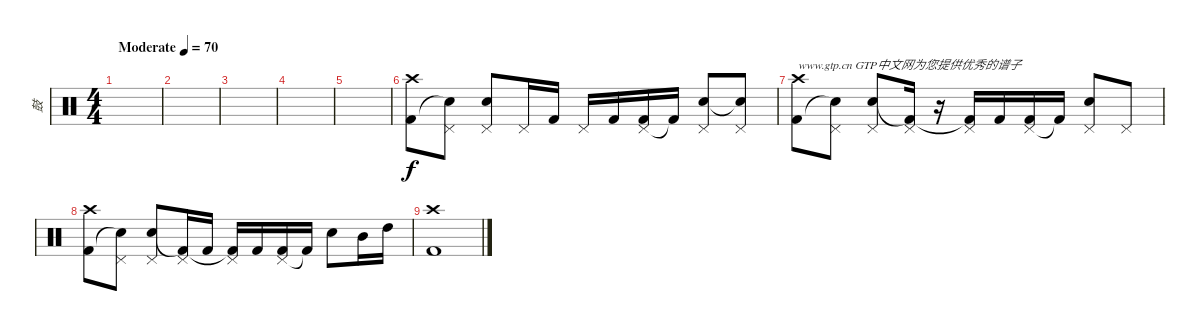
\track ("鼓" "鼓") {instrument percussion}
\staff {score}
\articulation defaults
\ts (4 4)
\tempo (70 "Moderate")
\clef neutral
\ks c
|
|
|
|
|
("Crash high (hit)" "Kick (hit) 2").8 ("Pedal Hi-Hat (hit)" "Snare (hit)"{t}).8 ("Pedal Hi-Hat (hit)" "Electric Snare (hit)").8 "Pedal Hi-Hat (hit)".16 "Kick (hit) 2".16 "Pedal Hi-Hat (hit)".16 "Kick (hit) 2".16 ("Pedal Hi-Hat (hit)" "Kick (hit) 2").16 "Kick (hit) 2"{t}.16 ("Pedal Hi-Hat (hit)" "Electric Snare (hit)").8 ("Pedal Hi-Hat (hit)" "Snare (hit)"{t}).8 |
("Crash high (hit)" "Kick (hit) 2").8{txt "www.gtp.cn GTP中文网为您提供优秀的谱子"} ("Pedal Hi-Hat (hit)" "Snare (hit)"{t}).8 ("Pedal Hi-Hat (hit)" "Electric Snare (hit)").8 ("Pedal Hi-Hat (hit)" "Kick (hit) 2"{t}).16 r.16 ("Pedal Hi-Hat (hit)" "Kick (hit) 2"{t}).16 "Kick (hit) 2".16 ("Pedal Hi-Hat (hit)" "Kick (hit) 2").16 "Kick (hit) 2"{t}.16 ("Pedal Hi-Hat (hit)" "Electric Snare (hit)").8 "Pedal Hi-Hat (hit)".8 |
("Crash high (hit)" "Kick (hit) 2").8 ("Pedal Hi-Hat (hit)" "Snare (hit)"{t}).8 ("Pedal Hi-Hat (hit)" "Electric Snare (hit)").8 ("Pedal Hi-Hat (hit)" "Kick (hit) 2"{t}).16 "Kick (hit) 2".16 ("Pedal Hi-Hat (hit)" "Kick (hit) 2"{t}).16 "Kick (hit) 2".16 ("Pedal Hi-Hat (hit)" "Kick (hit) 2").16 "Kick (hit) 2"{t}.16 "Electric Snare (hit)".8 "Mid Tom (hit)".16 "High Tom (hit)".16 |
("Crash high (hit)" "Kick (hit) 2").1
